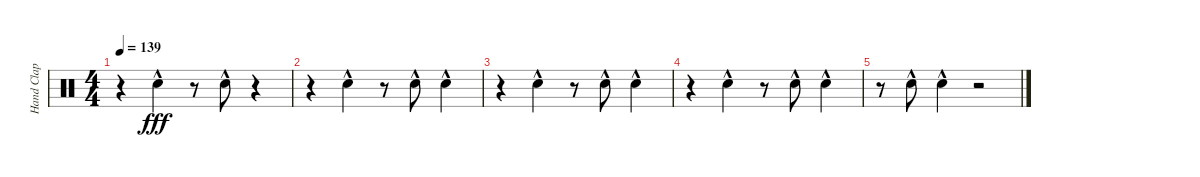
\track ("Hand Clap Effect" "Hand Clap ") {instrument percussion}
\staff {score}
\articulation defaults
\ts (4 4)
\tempo 139
\clef neutral
\ks c
r.4{dy fff} "Hand Clap (hit)"{hac}.4 r.8 "Hand Clap (hit)"{hac}.8 r.4 |
r.4 "Hand Clap (hit)"{hac}.4 r.8 "Hand Clap (hit)"{hac}.8 "Hand Clap (hit)"{hac}.4 |
r.4 "Hand Clap (hit)"{hac}.4 r.8 "Hand Clap (hit)"{hac}.8 "Hand Clap (hit)"{hac}.4 |
r.4 "Hand Clap (hit)"{hac}.4 r.8 "Hand Clap (hit)"{hac}.8 "Hand Clap (hit)"{hac}.4 |
r.8 "Hand Clap (hit)"{hac}.8 "Hand Clap (hit)"{hac}.4 r.2
